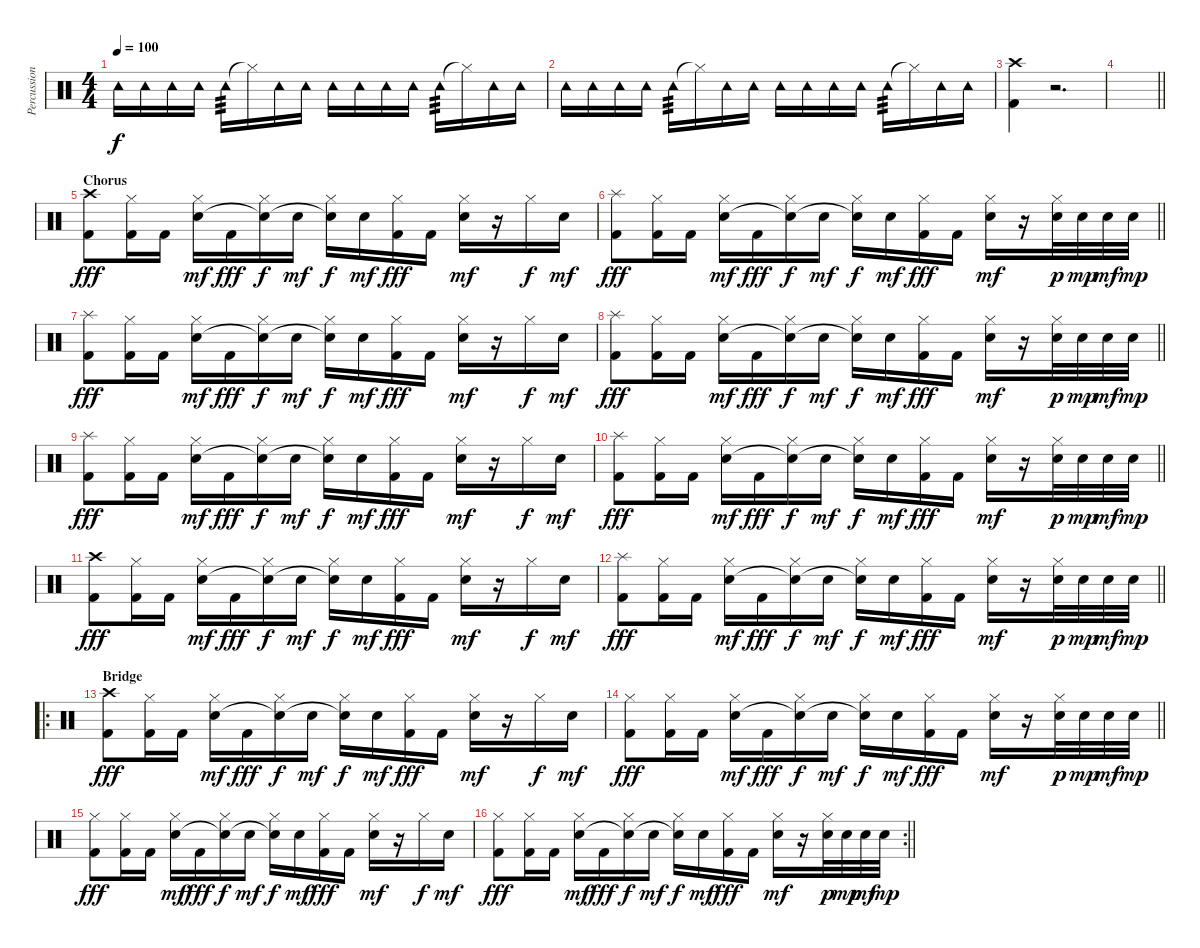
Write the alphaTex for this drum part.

\track ("Percussioni" "Percussion") {instrument percussion}
\staff {score}
\articulation defaults
\ts (4 4)
\tempo 100
\clef neutral
\ks c "Tambourine (hit)".16{dy f} "Tambourine (hit)".16 "Tambourine (hit)".16 "Tambourine (hit)".16 "Tambourine (hit)".16{tp 3} "Hi-Hat (closed)"{t}.16 "Tambourine (hit)".16 "Tambourine (hit)".16 "Tambourine (hit)".16 "Tambourine (hit)".16 "Tambourine (hit)".16 "Tambourine (hit)".16 "Tambourine (hit)".16{tp 3} "Hi-Hat (closed)"{t}.16 "Tambourine (hit)".16 "Tambourine (hit)".16
|
"Tambourine (hit)".16 "Tambourine (hit)".16 "Tambourine (hit)".16 "Tambourine (hit)".16 "Tambourine (hit)".16{tp 3} "Hi-Hat (closed)"{t}.16 "Tambourine (hit)".16 "Tambourine (hit)".16 "Tambourine (hit)".16 "Tambourine (hit)".16 "Tambourine (hit)".16 "Tambourine (hit)".16 "Tambourine (hit)".16{tp 3} "Hi-Hat (closed)"{t}.16 "Tambourine (hit)".16 "Tambourine (hit)".16 |
("Crash high (hit)" "Kick (hit) 2").4{volume 13} r.2{d} |
\barLineRight lightlight
|
\section ("" "Chorus")
("Crash high (hit)" "Kick (hit) 2").8{dy fff} ("Hi-Hat (closed)" "Kick (hit) 2").16 "Kick (hit) 2".16 ("Hi-Hat (closed)" "Snare (hit) 2").16{dy mf} "Kick (hit) 2".16{dy fff} ("Hi-Hat (closed)" "Snare (hit)"{t}).16{dy f} "Snare (hit) 2".16{dy mf} ("Hi-Hat (closed)" "Snare (hit)"{t}).16{dy f} "Snare (hit) 2".16{dy mf} ("Hi-Hat (closed)" "Kick (hit) 2").16{dy fff} "Kick (hit) 2".16 ("Hi-Hat (closed)" "Snare (hit) 2").16{dy mf} r.16 "Hi-Hat (closed)".16{dy f} "Snare (hit) 2".16{dy mf} |
\barLineRight lightlight
("Splash (hit)" "Kick (hit) 2").8{dy fff} ("Hi-Hat (closed)" "Kick (hit) 2").16 "Kick (hit) 2".16 ("Hi-Hat (closed)" "Snare (hit) 2").16{dy mf} "Kick (hit) 2".16{dy fff} ("Hi-Hat (closed)" "Snare (hit)"{t}).16{dy f} "Snare (hit) 2".16{dy mf} ("Hi-Hat (closed)" "Snare (hit)"{t}).16{dy f} "Snare (hit) 2".16{dy mf} ("Hi-Hat (closed)" "Kick (hit) 2").16{dy fff} "Kick (hit) 2".16 ("Hi-Hat (closed)" "Snare (hit) 2").16{dy mf} r.16 ("Hi-Hat (closed)" "Snare (hit) 2").32{dy p} "Snare (hit) 2".32{dy mp} "Snare (hit) 2".32{dy mf} "Snare (hit) 2".32{dy mp} |
("Splash (hit)" "Kick (hit) 2").8{dy fff} ("Hi-Hat (closed)" "Kick (hit) 2").16 "Kick (hit) 2".16 ("Hi-Hat (closed)" "Snare (hit) 2").16{dy mf} "Kick (hit) 2".16{dy fff} ("Hi-Hat (closed)" "Snare (hit)"{t}).16{dy f} "Snare (hit) 2".16{dy mf} ("Hi-Hat (closed)" "Snare (hit)"{t}).16{dy f} "Snare (hit) 2".16{dy mf} ("Hi-Hat (closed)" "Kick (hit) 2").16{dy fff} "Kick (hit) 2".16 ("Hi-Hat (closed)" "Snare (hit) 2").16{dy mf} r.16 "Hi-Hat (closed)".16{dy f} "Snare (hit) 2".16{dy mf} |
\barLineRight lightlight
("Splash (hit)" "Kick (hit) 2").8{dy fff} ("Hi-Hat (closed)" "Kick (hit) 2").16 "Kick (hit) 2".16 ("Hi-Hat (closed)" "Snare (hit) 2").16{dy mf} "Kick (hit) 2".16{dy fff} ("Hi-Hat (closed)" "Snare (hit)"{t}).16{dy f} "Snare (hit) 2".16{dy mf} ("Hi-Hat (closed)" "Snare (hit)"{t}).16{dy f} "Snare (hit) 2".16{dy mf} ("Hi-Hat (closed)" "Kick (hit) 2").16{dy fff} "Kick (hit) 2".16 ("Hi-Hat (closed)" "Snare (hit) 2").16{dy mf} r.16 ("Hi-Hat (closed)" "Snare (hit) 2").32{dy p} "Snare (hit) 2".32{dy mp} "Snare (hit) 2".32{dy mf} "Snare (hit) 2".32{dy mp} |
("Splash (hit)" "Kick (hit) 2").8{dy fff} ("Hi-Hat (closed)" "Kick (hit) 2").16 "Kick (hit) 2".16 ("Hi-Hat (closed)" "Snare (hit) 2").16{dy mf} "Kick (hit) 2".16{dy fff} ("Hi-Hat (closed)" "Snare (hit)"{t}).16{dy f} "Snare (hit) 2".16{dy mf} ("Hi-Hat (closed)" "Snare (hit)"{t}).16{dy f} "Snare (hit) 2".16{dy mf} ("Hi-Hat (closed)" "Kick (hit) 2").16{dy fff} "Kick (hit) 2".16 ("Hi-Hat (closed)" "Snare (hit) 2").16{dy mf} r.16 "Hi-Hat (closed)".16{dy f} "Snare (hit) 2".16{dy mf} |
\barLineRight lightlight
("Splash (hit)" "Kick (hit) 2").8{dy fff} ("Hi-Hat (closed)" "Kick (hit) 2").16 "Kick (hit) 2".16 ("Hi-Hat (closed)" "Snare (hit) 2").16{dy mf} "Kick (hit) 2".16{dy fff} ("Hi-Hat (closed)" "Snare (hit)"{t}).16{dy f} "Snare (hit) 2".16{dy mf} ("Hi-Hat (closed)" "Snare (hit)"{t}).16{dy f} "Snare (hit) 2".16{dy mf} ("Hi-Hat (closed)" "Kick (hit) 2").16{dy fff} "Kick (hit) 2".16 ("Hi-Hat (closed)" "Snare (hit) 2").16{dy mf} r.16 ("Hi-Hat (closed)" "Snare (hit) 2").32{dy p} "Snare (hit) 2".32{dy mp} "Snare (hit) 2".32{dy mf} "Snare (hit) 2".32{dy mp} |
("Crash high (hit)" "Kick (hit) 2").8{dy fff} ("Hi-Hat (closed)" "Kick (hit) 2").16 "Kick (hit) 2".16 ("Hi-Hat (closed)" "Snare (hit) 2").16{dy mf} "Kick (hit) 2".16{dy fff} ("Hi-Hat (closed)" "Snare (hit)"{t}).16{dy f} "Snare (hit) 2".16{dy mf} ("Hi-Hat (closed)" "Snare (hit)"{t}).16{dy f} "Snare (hit) 2".16{dy mf} ("Hi-Hat (closed)" "Kick (hit) 2").16{dy fff} "Kick (hit) 2".16 ("Hi-Hat (closed)" "Snare (hit) 2").16{dy mf} r.16 "Hi-Hat (closed)".16{dy f} "Snare (hit) 2".16{dy mf} |
\barLineRight lightlight
("Splash (hit)" "Kick (hit) 2").8{dy fff} ("Hi-Hat (closed)" "Kick (hit) 2").16 "Kick (hit) 2".16 ("Hi-Hat (closed)" "Snare (hit) 2").16{dy mf} "Kick (hit) 2".16{dy fff} ("Hi-Hat (closed)" "Snare (hit)"{t}).16{dy f} "Snare (hit) 2".16{dy mf} ("Hi-Hat (closed)" "Snare (hit)"{t}).16{dy f} "Snare (hit) 2".16{dy mf} ("Hi-Hat (closed)" "Kick (hit) 2").16{dy fff} "Kick (hit) 2".16 ("Hi-Hat (closed)" "Snare (hit) 2").16{dy mf} r.16 ("Hi-Hat (closed)" "Snare (hit) 2").32{dy p} "Snare (hit) 2".32{dy mp} "Snare (hit) 2".32{dy mf} "Snare (hit) 2".32{dy mp} |
\ro
\section ("" "Bridge")
("Crash high (hit)" "Kick (hit) 2").8{dy fff} ("Hi-Hat (closed)" "Kick (hit) 2").16 "Kick (hit) 2".16 ("Hi-Hat (closed)" "Snare (hit) 2").16{dy mf} "Kick (hit) 2".16{dy fff} ("Hi-Hat (closed)" "Snare (hit)"{t}).16{dy f} "Snare (hit) 2".16{dy mf} ("Hi-Hat (closed)" "Snare (hit)"{t}).16{dy f} "Snare (hit) 2".16{dy mf} ("Hi-Hat (closed)" "Kick (hit) 2").16{dy fff} "Kick (hit) 2".16 ("Hi-Hat (closed)" "Snare (hit) 2").16{dy mf} r.16 "Hi-Hat (closed)".16{dy f} "Snare (hit) 2".16{dy mf} |
\barLineRight lightlight
("Hi-Hat (closed)" "Kick (hit) 2").8{dy fff} ("Hi-Hat (closed)" "Kick (hit) 2").16 "Kick (hit) 2".16 ("Hi-Hat (closed)" "Snare (hit) 2").16{dy mf} "Kick (hit) 2".16{dy fff} ("Hi-Hat (closed)" "Snare (hit)"{t}).16{dy f} "Snare (hit) 2".16{dy mf} ("Hi-Hat (closed)" "Snare (hit)"{t}).16{dy f} "Snare (hit) 2".16{dy mf} ("Hi-Hat (closed)" "Kick (hit) 2").16{dy fff} "Kick (hit) 2".16 ("Hi-Hat (closed)" "Snare (hit) 2").16{dy mf} r.16 ("Hi-Hat (closed)" "Snare (hit) 2").32{dy p} "Snare (hit) 2".32{dy mp} "Snare (hit) 2".32{dy mf} "Snare (hit) 2".32{dy mp} |
("Hi-Hat (closed)" "Kick (hit) 2").8{dy fff} ("Hi-Hat (closed)" "Kick (hit) 2").16 "Kick (hit) 2".16 ("Hi-Hat (closed)" "Snare (hit) 2").16{dy mf} "Kick (hit) 2".16{dy fff} ("Hi-Hat (closed)" "Snare (hit)"{t}).16{dy f} "Snare (hit) 2".16{dy mf} ("Hi-Hat (closed)" "Snare (hit)"{t}).16{dy f} "Snare (hit) 2".16{dy mf} ("Hi-Hat (closed)" "Kick (hit) 2").16{dy fff} "Kick (hit) 2".16 ("Hi-Hat (closed)" "Snare (hit) 2").16{dy mf} r.16 "Hi-Hat (closed)".16{dy f} "Snare (hit) 2".16{dy mf} |
\rc 2
\barLineRight lightlight
("Hi-Hat (closed)" "Kick (hit) 2").8{dy fff} ("Hi-Hat (closed)" "Kick (hit) 2").16 "Kick (hit) 2".16 ("Hi-Hat (closed)" "Snare (hit) 2").16{dy mf} "Kick (hit) 2".16{dy fff} ("Hi-Hat (closed)" "Snare (hit)"{t}).16{dy f} "Snare (hit) 2".16{dy mf} ("Hi-Hat (closed)" "Snare (hit)"{t}).16{dy f} "Snare (hit) 2".16{dy mf} ("Hi-Hat (closed)" "Kick (hit) 2").16{dy fff} "Kick (hit) 2".16 ("Hi-Hat (closed)" "Snare (hit) 2").16{dy mf} r.16 ("Hi-Hat (closed)" "Snare (hit) 2").32{dy p} "Snare (hit) 2".32{dy mp} "Snare (hit) 2".32{dy mf} "Snare (hit) 2".32{dy mp}
